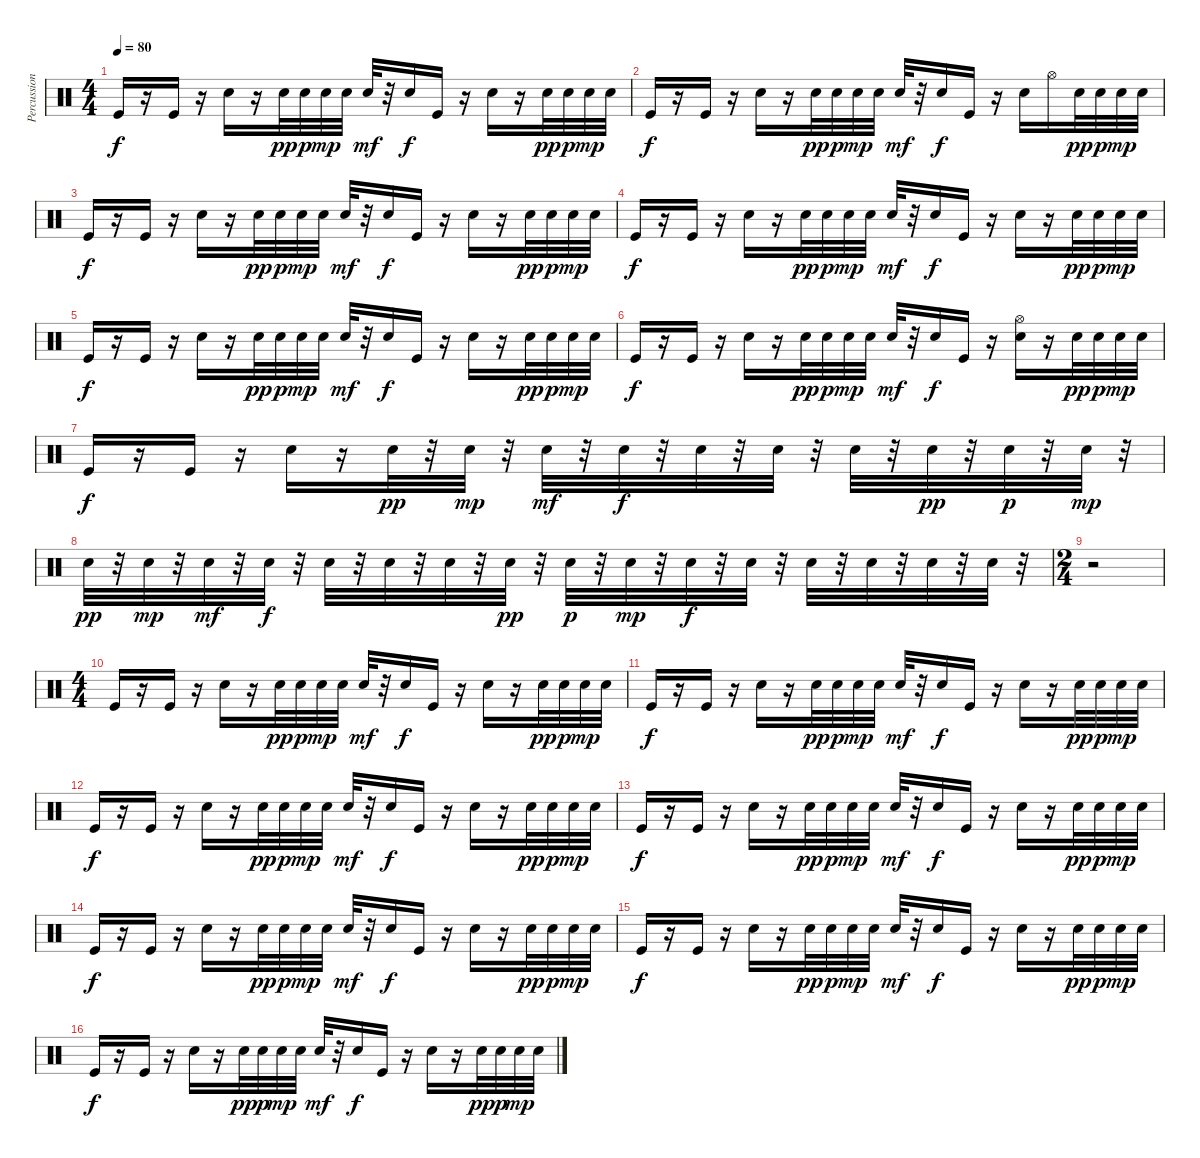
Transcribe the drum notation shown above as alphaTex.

\track ("Percussions" "Percussion") {instrument percussion}
\staff {score}
\articulation defaults
\ts (4 4)
\tempo 80
\clef neutral
\ks c "Kick (hit)".16{dy f}
r.16 "Kick (hit)".16 r.16 "Snare (hit) 2".16 r.16 "Snare (hit) 2".32{dy pp} "Snare (hit) 2".32{dy p} "Snare (hit) 2".32{dy mp} "Snare (hit) 2".32 "Snare (hit) 2".32{dy mf} r.32 "Electric Snare (hit)".16{dy f} "Kick (hit)".16 r.16 "Electric Snare (hit)".16 r.16 "Snare (hit) 2".32{dy pp} "Snare (hit) 2".32{dy p} "Snare (hit) 2".32{dy mp} "Snare (hit) 2".32 |
"Kick (hit)".16{dy f} r.16 "Kick (hit)".16 r.16 "Snare (hit) 2".16 r.16 "Snare (hit) 2".32{dy pp} "Snare (hit) 2".32{dy p} "Snare (hit) 2".32{dy mp} "Snare (hit) 2".32 "Snare (hit) 2".32{dy mf} r.32 "Electric Snare (hit)".16{dy f} "Kick (hit)".16 r.16 "Electric Snare (hit)".16 "Hi-Hat (open)".16 "Snare (hit) 2".32{dy pp} "Snare (hit) 2".32{dy p} "Snare (hit) 2".32{dy mp} "Snare (hit) 2".32 |
"Kick (hit)".16{dy f} r.16 "Kick (hit)".16 r.16 "Snare (hit) 2".16 r.16 "Snare (hit) 2".32{dy pp} "Snare (hit) 2".32{dy p} "Snare (hit) 2".32{dy mp} "Snare (hit) 2".32 "Snare (hit) 2".32{dy mf} r.32 "Electric Snare (hit)".16{dy f} "Kick (hit)".16 r.16 "Electric Snare (hit)".16 r.16 "Snare (hit) 2".32{dy pp} "Snare (hit) 2".32{dy p} "Snare (hit) 2".32{dy mp} "Snare (hit) 2".32 |
"Kick (hit)".16{dy f} r.16 "Kick (hit)".16 r.16 "Snare (hit) 2".16 r.16 "Snare (hit) 2".32{dy pp} "Snare (hit) 2".32{dy p} "Snare (hit) 2".32{dy mp} "Snare (hit) 2".32 "Snare (hit) 2".32{dy mf} r.32 "Electric Snare (hit)".16{dy f} "Kick (hit)".16 r.16 "Electric Snare (hit)".16 r.16 "Snare (hit) 2".32{dy pp} "Snare (hit) 2".32{dy p} "Snare (hit) 2".32{dy mp} "Snare (hit) 2".32 |
"Kick (hit)".16{dy f} r.16 "Kick (hit)".16 r.16 "Snare (hit) 2".16 r.16 "Snare (hit) 2".32{dy pp} "Snare (hit) 2".32{dy p} "Snare (hit) 2".32{dy mp} "Snare (hit) 2".32 "Snare (hit) 2".32{dy mf} r.32 "Electric Snare (hit)".16{dy f} "Kick (hit)".16 r.16 "Electric Snare (hit)".16 r.16 "Snare (hit) 2".32{dy pp} "Snare (hit) 2".32{dy p} "Snare (hit) 2".32{dy mp} "Snare (hit) 2".32 |
"Kick (hit)".16{dy f} r.16 "Kick (hit)".16 r.16 "Snare (hit) 2".16 r.16 "Snare (hit) 2".32{dy pp} "Snare (hit) 2".32{dy p} "Snare (hit) 2".32{dy mp} "Snare (hit) 2".32 "Snare (hit) 2".32{dy mf} r.32 "Electric Snare (hit)".16{dy f} "Kick (hit)".16 r.16 ("Hi-Hat (open)" "Electric Snare (hit)").16 r.16 "Snare (hit) 2".32{dy pp} "Snare (hit) 2".32{dy p} "Snare (hit) 2".32{dy mp} "Snare (hit) 2".32 |
"Kick (hit)".16{dy f} r.16 "Kick (hit)".16 r.16 "Snare (hit) 2".16 r.16 "Snare (hit) 2".32{dy pp} r.32 "Snare (hit) 2".32{dy mp} r.32 "Snare (hit) 2".32{dy mf} r.32 "Snare (hit) 2".32{dy f} r.32 "Snare (hit) 2".32 r.32 "Electric Snare (hit)".32 r.32 "Electric Snare (hit)".32 r.32 "Snare (hit) 2".32{dy pp} r.32 "Snare (hit) 2".32{dy p} r.32 "Snare (hit) 2".32{dy mp} r.32 |
"Snare (hit) 2".32{dy pp} r.32 "Snare (hit) 2".32{dy mp} r.32 "Snare (hit) 2".32{dy mf} r.32 "Snare (hit) 2".32{dy f} r.32 "Snare (hit) 2".32 r.32 "Electric Snare (hit)".32 r.32 "Electric Snare (hit)".32 r.32 "Snare (hit) 2".32{dy pp} r.32 "Snare (hit) 2".32{dy p} r.32 "Snare (hit) 2".32{dy mp} r.32 "Snare (hit) 2".32{dy f} r.32 "Snare (hit) 2".32 r.32 "Electric Snare (hit)".32 r.32 "Electric Snare (hit)".32 r.32 "Snare (hit) 2".32 r.32 "Snare (hit) 2".32 r.32 |
\ts (2 4)
r.2 |
\ts (4 4)
"Kick (hit)".16 r.16 "Kick (hit)".16 r.16 "Snare (hit) 2".16 r.16 "Snare (hit) 2".32{dy pp} "Snare (hit) 2".32{dy p} "Snare (hit) 2".32{dy mp} "Snare (hit) 2".32 "Snare (hit) 2".32{dy mf} r.32 "Electric Snare (hit)".16{dy f} "Kick (hit)".16 r.16 "Electric Snare (hit)".16 r.16 "Snare (hit) 2".32{dy pp} "Snare (hit) 2".32{dy p} "Snare (hit) 2".32{dy mp} "Snare (hit) 2".32 |
"Kick (hit)".16{dy f} r.16 "Kick (hit)".16 r.16 "Snare (hit) 2".16 r.16 "Snare (hit) 2".32{dy pp} "Snare (hit) 2".32{dy p} "Snare (hit) 2".32{dy mp} "Snare (hit) 2".32 "Snare (hit) 2".32{dy mf} r.32 "Electric Snare (hit)".16{dy f} "Kick (hit)".16 r.16 "Electric Snare (hit)".16 r.16 "Snare (hit) 2".32{dy pp} "Snare (hit) 2".32{dy p} "Snare (hit) 2".32{dy mp} "Snare (hit) 2".32 |
"Kick (hit)".16{dy f} r.16 "Kick (hit)".16 r.16 "Snare (hit) 2".16 r.16 "Snare (hit) 2".32{dy pp} "Snare (hit) 2".32{dy p} "Snare (hit) 2".32{dy mp} "Snare (hit) 2".32 "Snare (hit) 2".32{dy mf} r.32 "Electric Snare (hit)".16{dy f} "Kick (hit)".16 r.16 "Electric Snare (hit)".16 r.16 "Snare (hit) 2".32{dy pp} "Snare (hit) 2".32{dy p} "Snare (hit) 2".32{dy mp} "Snare (hit) 2".32 |
"Kick (hit)".16{dy f} r.16 "Kick (hit)".16 r.16 "Snare (hit) 2".16 r.16 "Snare (hit) 2".32{dy pp} "Snare (hit) 2".32{dy p} "Snare (hit) 2".32{dy mp} "Snare (hit) 2".32 "Snare (hit) 2".32{dy mf} r.32 "Electric Snare (hit)".16{dy f} "Kick (hit)".16 r.16 "Electric Snare (hit)".16 r.16 "Snare (hit) 2".32{dy pp} "Snare (hit) 2".32{dy p} "Snare (hit) 2".32{dy mp} "Snare (hit) 2".32 |
"Kick (hit)".16{dy f} r.16 "Kick (hit)".16 r.16 "Snare (hit) 2".16 r.16 "Snare (hit) 2".32{dy pp} "Snare (hit) 2".32{dy p} "Snare (hit) 2".32{dy mp} "Snare (hit) 2".32 "Snare (hit) 2".32{dy mf} r.32 "Electric Snare (hit)".16{dy f} "Kick (hit)".16 r.16 "Electric Snare (hit)".16 r.16 "Snare (hit) 2".32{dy pp} "Snare (hit) 2".32{dy p} "Snare (hit) 2".32{dy mp} "Snare (hit) 2".32 |
"Kick (hit)".16{dy f} r.16 "Kick (hit)".16 r.16 "Snare (hit) 2".16 r.16 "Snare (hit) 2".32{dy pp} "Snare (hit) 2".32{dy p} "Snare (hit) 2".32{dy mp} "Snare (hit) 2".32 "Snare (hit) 2".32{dy mf} r.32 "Electric Snare (hit)".16{dy f} "Kick (hit)".16 r.16 "Electric Snare (hit)".16 r.16 "Snare (hit) 2".32{dy pp} "Snare (hit) 2".32{dy p} "Snare (hit) 2".32{dy mp} "Snare (hit) 2".32 |
"Kick (hit)".16{dy f} r.16 "Kick (hit)".16 r.16 "Snare (hit) 2".16 r.16 "Snare (hit) 2".32{dy pp} "Snare (hit) 2".32{dy p} "Snare (hit) 2".32{dy mp} "Snare (hit) 2".32 "Snare (hit) 2".32{dy mf} r.32 "Electric Snare (hit)".16{dy f} "Kick (hit)".16 r.16 "Electric Snare (hit)".16 r.16 "Snare (hit) 2".32{dy pp} "Snare (hit) 2".32{dy p} "Snare (hit) 2".32{dy mp} "Snare (hit) 2".32
